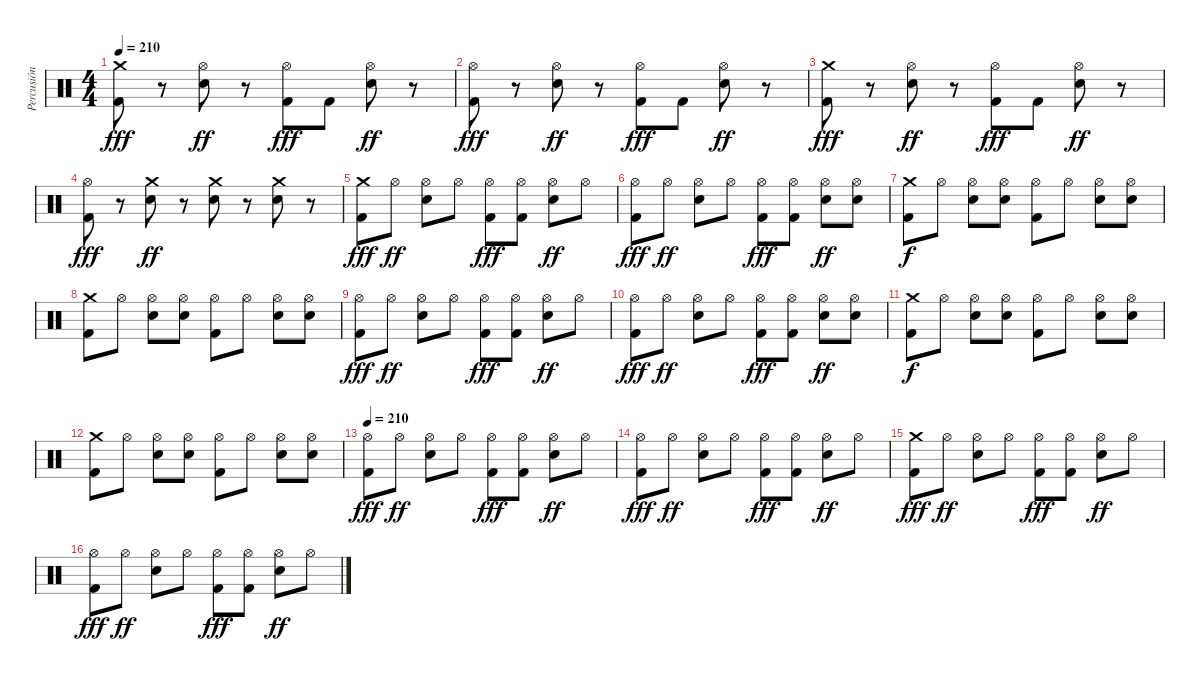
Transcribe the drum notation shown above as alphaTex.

\track ("Percusión" "Percusión") {instrument percussion}
\staff {score}
\articulation defaults
\ts (4 4)
\tempo 210
\clef neutral
\ks c
("Crash medium (hit)" "Kick (hit) 2").8{dy fff} r.8 ("Hi-Hat (open)" "Electric Snare (hit)").8{dy ff} r.8 ("Hi-Hat (open)" "Kick (hit) 2").8{dy fff} "Kick (hit) 2".8 ("Hi-Hat (open)" "Electric Snare (hit)").8{dy ff} r.8 |
("Hi-Hat (open)" "Kick (hit) 2").8{dy fff} r.8 ("Hi-Hat (open)" "Electric Snare (hit)").8{dy ff} r.8 ("Hi-Hat (open)" "Kick (hit) 2").8{dy fff} "Kick (hit) 2".8 ("Hi-Hat (open)" "Electric Snare (hit)").8{dy ff} r.8 |
("Crash medium (hit)" "Kick (hit) 2").8{dy fff} r.8 ("Hi-Hat (open)" "Electric Snare (hit)").8{dy ff} r.8 ("Hi-Hat (open)" "Kick (hit) 2").8{dy fff} "Kick (hit) 2".8 ("Hi-Hat (open)" "Electric Snare (hit)").8{dy ff} r.8 |
("Hi-Hat (open)" "Kick (hit) 2").8{dy fff} r.8 ("Crash medium (hit)" "Electric Snare (hit)").8{dy ff} r.8 ("Crash medium (hit)" "Electric Snare (hit)").8 r.8 ("Crash medium (hit)" "Electric Snare (hit)").8 r.8 |
("Crash medium (hit)" "Kick (hit) 2").8{dy fff} "Hi-Hat (open)".8{dy ff} ("Hi-Hat (open)" "Electric Snare (hit)").8 "Hi-Hat (open)".8 ("Hi-Hat (open)" "Kick (hit) 2").8{dy fff} ("Hi-Hat (open)" "Kick (hit) 2").8 ("Hi-Hat (open)" "Electric Snare (hit)").8{dy ff} "Hi-Hat (open)".8 |
("Hi-Hat (open)" "Kick (hit) 2").8{dy fff} "Hi-Hat (open)".8{dy ff} ("Hi-Hat (open)" "Electric Snare (hit)").8 "Hi-Hat (open)".8 ("Hi-Hat (open)" "Kick (hit) 2").8{dy fff} ("Hi-Hat (open)" "Kick (hit) 2").8 ("Hi-Hat (open)" "Electric Snare (hit)").8{dy ff} ("Hi-Hat (open)" "Electric Snare (hit)").8 |
("Crash medium (hit)" "Kick (hit) 2").8{dy f} "Hi-Hat (open)".8 ("Hi-Hat (open)" "Electric Snare (hit)").8 ("Hi-Hat (open)" "Electric Snare (hit)").8 ("Hi-Hat (open)" "Kick (hit) 2").8 "Hi-Hat (open)".8 ("Hi-Hat (open)" "Electric Snare (hit)").8 ("Hi-Hat (open)" "Electric Snare (hit)").8 |
("Crash medium (hit)" "Kick (hit) 2").8 "Hi-Hat (open)".8 ("Hi-Hat (open)" "Electric Snare (hit)").8 ("Hi-Hat (open)" "Electric Snare (hit)").8 ("Hi-Hat (open)" "Kick (hit) 2").8 "Hi-Hat (open)".8 ("Hi-Hat (open)" "Electric Snare (hit)").8 ("Hi-Hat (open)" "Electric Snare (hit)").8 |
("Hi-Hat (open)" "Kick (hit) 2").8{dy fff} "Hi-Hat (open)".8{dy ff} ("Hi-Hat (open)" "Electric Snare (hit)").8 "Hi-Hat (open)".8 ("Hi-Hat (open)" "Kick (hit) 2").8{dy fff} ("Hi-Hat (open)" "Kick (hit) 2").8 ("Hi-Hat (open)" "Electric Snare (hit)").8{dy ff} "Hi-Hat (open)".8 |
("Hi-Hat (open)" "Kick (hit) 2").8{dy fff} "Hi-Hat (open)".8{dy ff} ("Hi-Hat (open)" "Electric Snare (hit)").8 "Hi-Hat (open)".8 ("Hi-Hat (open)" "Kick (hit) 2").8{dy fff} ("Hi-Hat (open)" "Kick (hit) 2").8 ("Hi-Hat (open)" "Electric Snare (hit)").8{dy ff} ("Hi-Hat (open)" "Electric Snare (hit)").8 |
("Crash medium (hit)" "Kick (hit) 2").8{dy f} "Hi-Hat (open)".8 ("Hi-Hat (open)" "Electric Snare (hit)").8 ("Hi-Hat (open)" "Electric Snare (hit)").8 ("Hi-Hat (open)" "Kick (hit) 2").8 "Hi-Hat (open)".8 ("Hi-Hat (open)" "Electric Snare (hit)").8 ("Hi-Hat (open)" "Electric Snare (hit)").8 |
("Crash medium (hit)" "Kick (hit) 2").8 "Hi-Hat (open)".8 ("Hi-Hat (open)" "Electric Snare (hit)").8 ("Hi-Hat (open)" "Electric Snare (hit)").8 ("Hi-Hat (open)" "Kick (hit) 2").8 "Hi-Hat (open)".8 ("Hi-Hat (open)" "Electric Snare (hit)").8 ("Hi-Hat (open)" "Electric Snare (hit)").8 |
\tempo 210
("Hi-Hat (open)" "Kick (hit) 2").8{dy fff} "Hi-Hat (open)".8{dy ff} ("Hi-Hat (open)" "Electric Snare (hit)").8 "Hi-Hat (open)".8 ("Hi-Hat (open)" "Kick (hit) 2").8{dy fff} ("Hi-Hat (open)" "Kick (hit) 2").8 ("Hi-Hat (open)" "Electric Snare (hit)").8{dy ff} "Hi-Hat (open)".8 |
("Hi-Hat (open)" "Kick (hit) 2").8{dy fff} "Hi-Hat (open)".8{dy ff} ("Hi-Hat (open)" "Electric Snare (hit)").8 "Hi-Hat (open)".8 ("Hi-Hat (open)" "Kick (hit) 2").8{dy fff} ("Hi-Hat (open)" "Kick (hit) 2").8 ("Hi-Hat (open)" "Electric Snare (hit)").8{dy ff} "Hi-Hat (open)".8 |
("Crash medium (hit)" "Kick (hit) 2").8{dy fff} "Hi-Hat (open)".8{dy ff} ("Hi-Hat (open)" "Electric Snare (hit)").8 "Hi-Hat (open)".8 ("Hi-Hat (open)" "Kick (hit) 2").8{dy fff} ("Hi-Hat (open)" "Kick (hit) 2").8 ("Hi-Hat (open)" "Electric Snare (hit)").8{dy ff} "Hi-Hat (open)".8 |
("Hi-Hat (open)" "Kick (hit) 2").8{dy fff} "Hi-Hat (open)".8{dy ff} ("Hi-Hat (open)" "Electric Snare (hit)").8 "Hi-Hat (open)".8 ("Hi-Hat (open)" "Kick (hit) 2").8{dy fff} ("Hi-Hat (open)" "Kick (hit) 2").8 ("Hi-Hat (open)" "Electric Snare (hit)").8{dy ff} "Hi-Hat (open)".8
